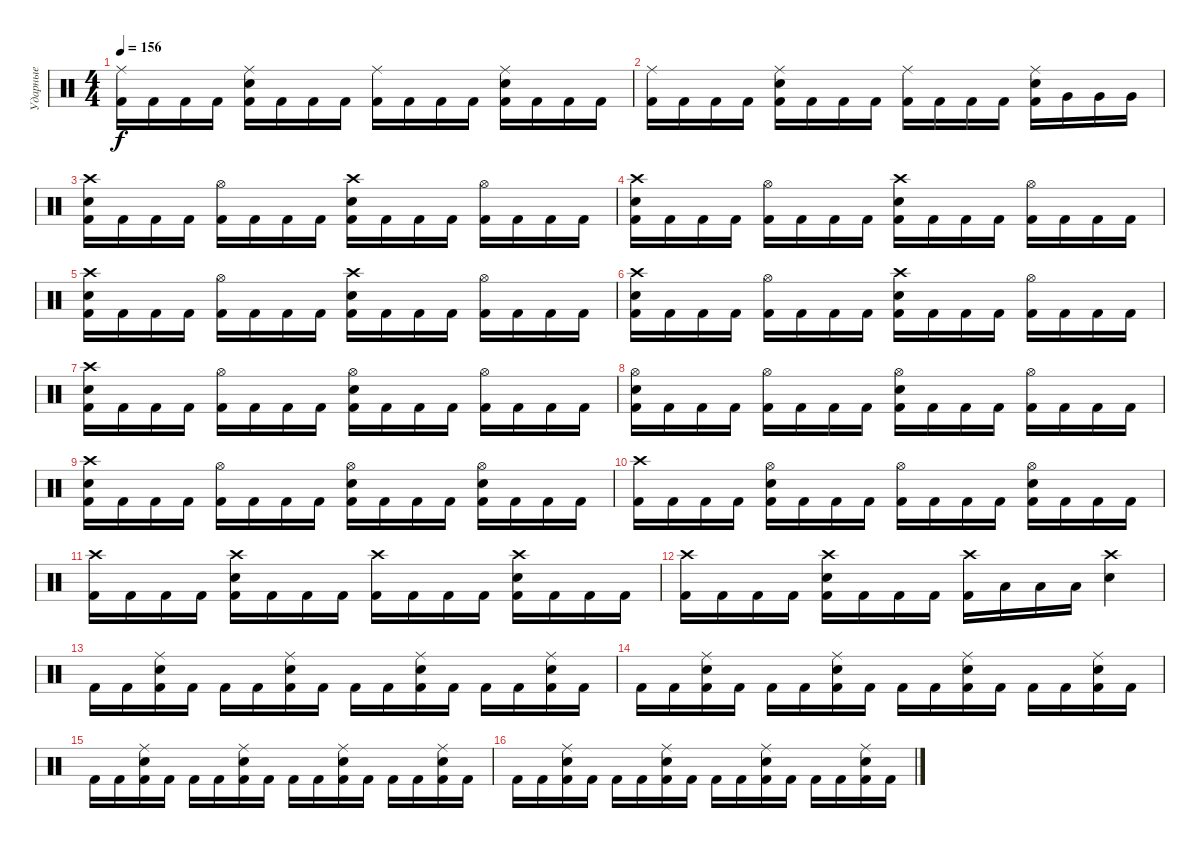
\track ("Ударные" "Ударные") {instrument percussion}
\staff {score}
\articulation defaults
\ts (4 4)
\tempo 156
\clef neutral
\ks c
("Ride (middle)" "Kick (hit) 2").16{dy f} "Kick (hit) 2".16 "Kick (hit) 2".16 "Kick (hit) 2".16 ("Ride (middle)" "Electric Snare (hit)" "Kick (hit) 2").16 "Kick (hit) 2".16 "Kick (hit) 2".16 "Kick (hit) 2".16 ("Ride (middle)" "Kick (hit) 2").16 "Kick (hit) 2".16 "Kick (hit) 2".16 "Kick (hit) 2".16 ("Ride (middle)" "Electric Snare (hit)" "Kick (hit) 2").16 "Kick (hit) 2".16 "Kick (hit) 2".16 "Kick (hit) 2".16 |
("Ride (middle)" "Kick (hit) 2").16 "Kick (hit) 2".16 "Kick (hit) 2".16 "Kick (hit) 2".16 ("Ride (middle)" "Electric Snare (hit)" "Kick (hit) 2").16 "Kick (hit) 2".16 "Kick (hit) 2".16 "Kick (hit) 2".16 ("Ride (middle)" "Kick (hit) 2").16 "Kick (hit) 2".16 "Kick (hit) 2".16 "Kick (hit) 2".16 ("Ride (middle)" "Electric Snare (hit)" "Kick (hit) 2").16 "Very Low Tom (hit)".16 "Very Low Tom (hit)".16 "Very Low Tom (hit)".16 |
("Crash high (hit)" "Electric Snare (hit)" "Kick (hit) 2").16 "Kick (hit) 2".16 "Kick (hit) 2".16 "Kick (hit) 2".16 ("Hi-Hat (open)" "Kick (hit) 2").16 "Kick (hit) 2".16 "Kick (hit) 2".16 "Kick (hit) 2".16 ("Crash high (hit)" "Electric Snare (hit)" "Kick (hit) 2").16 "Kick (hit) 2".16 "Kick (hit) 2".16 "Kick (hit) 2".16 ("Hi-Hat (open)" "Kick (hit) 2").16 "Kick (hit) 2".16 "Kick (hit) 2".16 "Kick (hit) 2".16 |
("Crash high (hit)" "Electric Snare (hit)" "Kick (hit) 2").16 "Kick (hit) 2".16 "Kick (hit) 2".16 "Kick (hit) 2".16 ("Hi-Hat (open)" "Kick (hit) 2").16 "Kick (hit) 2".16 "Kick (hit) 2".16 "Kick (hit) 2".16 ("Crash high (hit)" "Electric Snare (hit)" "Kick (hit) 2").16 "Kick (hit) 2".16 "Kick (hit) 2".16 "Kick (hit) 2".16 ("Hi-Hat (open)" "Kick (hit) 2").16 "Kick (hit) 2".16 "Kick (hit) 2".16 "Kick (hit) 2".16 |
("Crash high (hit)" "Electric Snare (hit)" "Kick (hit) 2").16 "Kick (hit) 2".16 "Kick (hit) 2".16 "Kick (hit) 2".16 ("Hi-Hat (open)" "Kick (hit) 2").16 "Kick (hit) 2".16 "Kick (hit) 2".16 "Kick (hit) 2".16 ("Crash high (hit)" "Electric Snare (hit)" "Kick (hit) 2").16 "Kick (hit) 2".16 "Kick (hit) 2".16 "Kick (hit) 2".16 ("Hi-Hat (open)" "Kick (hit) 2").16 "Kick (hit) 2".16 "Kick (hit) 2".16 "Kick (hit) 2".16 |
("Crash high (hit)" "Electric Snare (hit)" "Kick (hit) 2").16 "Kick (hit) 2".16 "Kick (hit) 2".16 "Kick (hit) 2".16 ("Hi-Hat (open)" "Kick (hit) 2").16 "Kick (hit) 2".16 "Kick (hit) 2".16 "Kick (hit) 2".16 ("Crash high (hit)" "Electric Snare (hit)" "Kick (hit) 2").16 "Kick (hit) 2".16 "Kick (hit) 2".16 "Kick (hit) 2".16 ("Hi-Hat (open)" "Kick (hit) 2").16 "Kick (hit) 2".16 "Kick (hit) 2".16 "Kick (hit) 2".16 |
("Crash high (hit)" "Electric Snare (hit)" "Kick (hit) 2").16 "Kick (hit) 2".16 "Kick (hit) 2".16 "Kick (hit) 2".16 ("Hi-Hat (open)" "Kick (hit) 2").16 "Kick (hit) 2".16 "Kick (hit) 2".16 "Kick (hit) 2".16 ("Hi-Hat (open)" "Electric Snare (hit)" "Kick (hit) 2").16 "Kick (hit) 2".16 "Kick (hit) 2".16 "Kick (hit) 2".16 ("Hi-Hat (open)" "Kick (hit) 2").16 "Kick (hit) 2".16 "Kick (hit) 2".16 "Kick (hit) 2".16 |
("Hi-Hat (open)" "Electric Snare (hit)" "Kick (hit) 2").16 "Kick (hit) 2".16 "Kick (hit) 2".16 "Kick (hit) 2".16 ("Hi-Hat (open)" "Kick (hit) 2").16 "Kick (hit) 2".16 "Kick (hit) 2".16 "Kick (hit) 2".16 ("Hi-Hat (open)" "Electric Snare (hit)" "Kick (hit) 2").16 "Kick (hit) 2".16 "Kick (hit) 2".16 "Kick (hit) 2".16 ("Hi-Hat (open)" "Kick (hit) 2").16 "Kick (hit) 2".16 "Kick (hit) 2".16 "Kick (hit) 2".16 |
("Crash high (hit)" "Electric Snare (hit)" "Kick (hit) 2").16 "Kick (hit) 2".16 "Kick (hit) 2".16 "Kick (hit) 2".16 ("Hi-Hat (open)" "Kick (hit) 2").16 "Kick (hit) 2".16 "Kick (hit) 2".16 "Kick (hit) 2".16 ("Hi-Hat (open)" "Electric Snare (hit)" "Kick (hit) 2").16 "Kick (hit) 2".16 "Kick (hit) 2".16 "Kick (hit) 2".16 ("Hi-Hat (open)" "Electric Snare (hit)" "Kick (hit) 2").16 "Kick (hit) 2".16 "Kick (hit) 2".16 "Kick (hit) 2".16 |
("Crash high (hit)" "Kick (hit) 2").16 "Kick (hit) 2".16 "Kick (hit) 2".16 "Kick (hit) 2".16 ("Hi-Hat (open)" "Electric Snare (hit)" "Kick (hit) 2").16 "Kick (hit) 2".16 "Kick (hit) 2".16 "Kick (hit) 2".16 ("Hi-Hat (open)" "Kick (hit) 2").16 "Kick (hit) 2".16 "Kick (hit) 2".16 "Kick (hit) 2".16 ("Hi-Hat (open)" "Electric Snare (hit)" "Kick (hit) 2").16 "Kick (hit) 2".16 "Kick (hit) 2".16 "Kick (hit) 2".16 |
("Crash high (hit)" "Kick (hit) 2").16 "Kick (hit) 2".16 "Kick (hit) 2".16 "Kick (hit) 2".16 ("Crash high (hit)" "Electric Snare (hit)" "Kick (hit) 2").16 "Kick (hit) 2".16 "Kick (hit) 2".16 "Kick (hit) 2".16 ("Crash high (hit)" "Kick (hit) 2").16 "Kick (hit) 2".16 "Kick (hit) 2".16 "Kick (hit) 2".16 ("Crash high (hit)" "Electric Snare (hit)" "Kick (hit) 2").16 "Kick (hit) 2".16 "Kick (hit) 2".16 "Kick (hit) 2".16 |
("Crash high (hit)" "Kick (hit) 2").16 "Kick (hit) 2".16 "Kick (hit) 2".16 "Kick (hit) 2".16 ("Crash high (hit)" "Electric Snare (hit)" "Kick (hit) 2").16 "Kick (hit) 2".16 "Kick (hit) 2".16 "Kick (hit) 2".16 ("Crash high (hit)" "Kick (hit) 2").16 "Low Tom (hit)".16 "Low Tom (hit)".16 "Low Tom (hit)".16 ("Crash high (hit)" "Electric Snare (hit)").4 |
"Kick (hit) 2".16 "Kick (hit) 2".16 ("Ride (middle)" "Electric Snare (hit)" "Kick (hit) 2").16 "Kick (hit) 2".16 "Kick (hit) 2".16 "Kick (hit) 2".16 ("Ride (middle)" "Electric Snare (hit)" "Kick (hit) 2").16 "Kick (hit) 2".16 "Kick (hit) 2".16 "Kick (hit) 2".16 ("Ride (middle)" "Electric Snare (hit)" "Kick (hit) 2").16 "Kick (hit) 2".16 "Kick (hit) 2".16 "Kick (hit) 2".16 ("Ride (middle)" "Electric Snare (hit)" "Kick (hit) 2").16 "Kick (hit) 2".16 |
"Kick (hit) 2".16 "Kick (hit) 2".16 ("Ride (middle)" "Electric Snare (hit)" "Kick (hit) 2").16 "Kick (hit) 2".16 "Kick (hit) 2".16 "Kick (hit) 2".16 ("Ride (middle)" "Electric Snare (hit)" "Kick (hit) 2").16 "Kick (hit) 2".16 "Kick (hit) 2".16 "Kick (hit) 2".16 ("Ride (middle)" "Electric Snare (hit)" "Kick (hit) 2").16 "Kick (hit) 2".16 "Kick (hit) 2".16 "Kick (hit) 2".16 ("Ride (middle)" "Electric Snare (hit)" "Kick (hit) 2").16 "Kick (hit) 2".16 |
"Kick (hit) 2".16 "Kick (hit) 2".16 ("Ride (middle)" "Electric Snare (hit)" "Kick (hit) 2").16 "Kick (hit) 2".16 "Kick (hit) 2".16 "Kick (hit) 2".16 ("Ride (middle)" "Electric Snare (hit)" "Kick (hit) 2").16 "Kick (hit) 2".16 "Kick (hit) 2".16 "Kick (hit) 2".16 ("Ride (middle)" "Electric Snare (hit)" "Kick (hit) 2").16 "Kick (hit) 2".16 "Kick (hit) 2".16 "Kick (hit) 2".16 ("Ride (middle)" "Electric Snare (hit)" "Kick (hit) 2").16 "Kick (hit) 2".16 |
"Kick (hit) 2".16 "Kick (hit) 2".16 ("Ride (middle)" "Electric Snare (hit)" "Kick (hit) 2").16 "Kick (hit) 2".16 "Kick (hit) 2".16 "Kick (hit) 2".16 ("Ride (middle)" "Electric Snare (hit)" "Kick (hit) 2").16 "Kick (hit) 2".16 "Kick (hit) 2".16 "Kick (hit) 2".16 ("Ride (middle)" "Electric Snare (hit)" "Kick (hit) 2").16 "Kick (hit) 2".16 "Kick (hit) 2".16 "Kick (hit) 2".16 ("Ride (middle)" "Electric Snare (hit)" "Kick (hit) 2").16 "Kick (hit) 2".16
